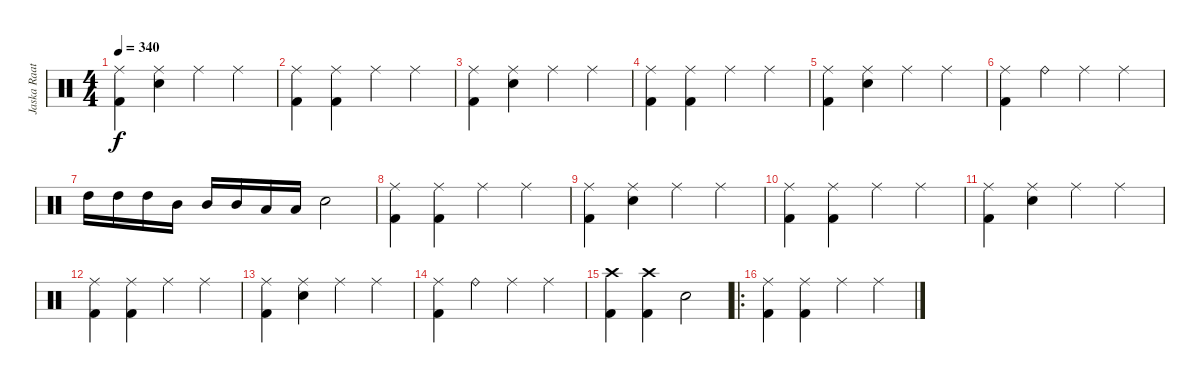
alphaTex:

\track ("Jaska Raatkinen" "Jaska Raat") {instrument percussion}
\staff {score}
\articulation defaults
\ts (4 4)
\tempo 340
\clef neutral
\ks c
("Ride (middle)" "Kick (hit) 2").4{dy f} ("Ride (middle)" "Snare (hit) 2").4 "Ride (middle)".4 "Ride (middle)".4 |
("Ride (middle)" "Kick (hit) 2").4 ("Ride (middle)" "Kick (hit) 2").4 "Ride (middle)".4 "Ride (middle)".4 |
("Ride (middle)" "Kick (hit) 2").4 ("Ride (middle)" "Snare (hit) 2").4 "Ride (middle)".4 "Ride (middle)".4 |
("Ride (middle)" "Kick (hit) 2").4 ("Ride (middle)" "Kick (hit) 2").4 "Ride (middle)".4 "Ride (middle)".4 |
("Ride (middle)" "Kick (hit) 2").4 ("Ride (middle)" "Snare (hit) 2").4 "Ride (middle)".4 "Ride (middle)".4 |
("Ride (middle)" "Kick (hit) 2").4 "Ride (bell)".4 "Ride (middle)".4 "Ride (middle)".4 |
"High Tom (hit)".16 "High Tom (hit)".16 "High Tom (hit)".16 "Mid Tom (hit)".16 "Mid Tom (hit)".16 "Mid Tom (hit)".16 "Low Tom (hit)".16 "Low Tom (hit)".16 "Snare (hit) 2".2 |
("Ride (middle)" "Kick (hit) 2").4 ("Ride (middle)" "Kick (hit) 2").4 "Ride (middle)".4 "Ride (middle)".4 |
("Ride (middle)" "Kick (hit) 2").4 ("Ride (middle)" "Snare (hit) 2").4 "Ride (middle)".4 "Ride (middle)".4 |
("Ride (middle)" "Kick (hit) 2").4 ("Ride (middle)" "Kick (hit) 2").4 "Ride (middle)".4 "Ride (middle)".4 |
("Ride (middle)" "Kick (hit) 2").4 ("Ride (middle)" "Snare (hit) 2").4 "Ride (middle)".4 "Ride (middle)".4 |
("Ride (middle)" "Kick (hit) 2").4 ("Ride (middle)" "Kick (hit) 2").4 "Ride (middle)".4 "Ride (middle)".4 |
("Ride (middle)" "Kick (hit) 2").4 ("Ride (middle)" "Snare (hit) 2").4 "Ride (middle)".4 "Ride (middle)".4 |
("Ride (middle)" "Kick (hit) 2").4 "Ride (bell)".4 "Ride (middle)".4 "Ride (middle)".4 |
("Crash high (hit)" "Kick (hit) 2").4 ("Crash high (hit)" "Kick (hit) 2").4 "Snare (hit) 2".2 |
\ro
("Ride (middle)" "Kick (hit) 2").4 ("Ride (middle)" "Kick (hit) 2").4 "Ride (middle)".4 "Ride (middle)".4
